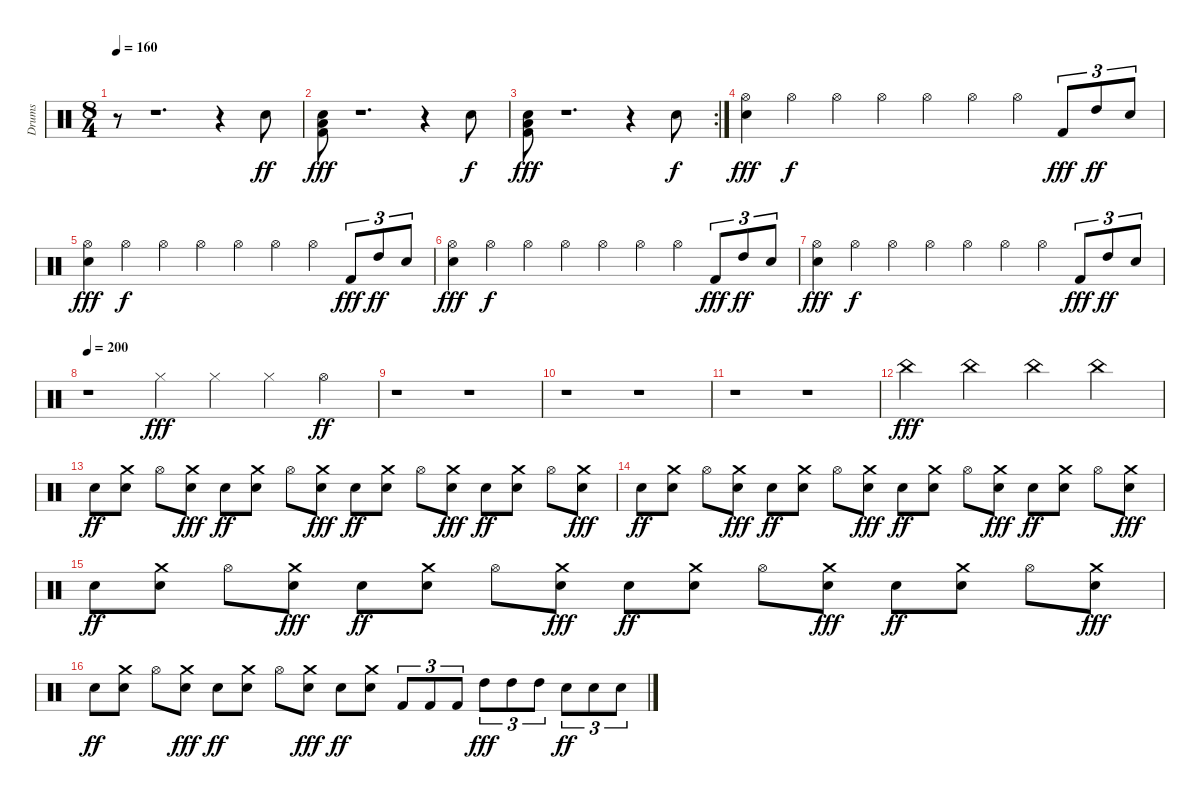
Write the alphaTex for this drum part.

\track ("Drums" "Drums") {instrument percussion}
\staff {score}
\articulation defaults
\ts (8 4)
\tempo 160
\clef neutral
\ks c
r.8{dy fff} r.1{d} r.4 "Electric Snare (hit)".8{dy ff} |
("Electric Snare (hit)" "Kick (hit) 2" "Low Tom (hit)").8{dy fff} r.1{d} r.4 "Electric Snare (hit)".8{dy f} |
\rc 2
("Electric Snare (hit)" "Kick (hit) 2" "Low Tom (hit)").8{dy fff} r.1{d} r.4 "Electric Snare (hit)".8{dy f} |
("Electric Snare (hit)" "Hi-Hat (open)").4{dy fff} "Hi-Hat (open)".4{dy f} "Hi-Hat (open)".4 "Hi-Hat (open)".4 "Hi-Hat (open)".4 "Hi-Hat (open)".4 "Hi-Hat (open)".4 "Kick (hit) 2".8{tu (3 2) dy fff} "High Tom (hit)".8{tu (3 2) dy ff} "Electric Snare (hit)".8{tu (3 2)} |
("Electric Snare (hit)" "Hi-Hat (open)").4{dy fff} "Hi-Hat (open)".4{dy f} "Hi-Hat (open)".4 "Hi-Hat (open)".4 "Hi-Hat (open)".4 "Hi-Hat (open)".4 "Hi-Hat (open)".4 "Kick (hit) 2".8{tu (3 2) dy fff} "High Tom (hit)".8{tu (3 2) dy ff} "Electric Snare (hit)".8{tu (3 2)} |
("Electric Snare (hit)" "Hi-Hat (open)").4{dy fff} "Hi-Hat (open)".4{dy f} "Hi-Hat (open)".4 "Hi-Hat (open)".4 "Hi-Hat (open)".4 "Hi-Hat (open)".4 "Hi-Hat (open)".4 "Kick (hit) 2".8{tu (3 2) dy fff} "High Tom (hit)".8{tu (3 2) dy ff} "Electric Snare (hit)".8{tu (3 2)} |
("Electric Snare (hit)" "Hi-Hat (open)").4{dy fff} "Hi-Hat (open)".4{dy f} "Hi-Hat (open)".4 "Hi-Hat (open)".4 "Hi-Hat (open)".4 "Hi-Hat (open)".4 "Hi-Hat (open)".4 "Kick (hit) 2".8{tu (3 2) dy fff} "High Tom (hit)".8{tu (3 2) dy ff} "Electric Snare (hit)".8{tu (3 2)} |
\tempo 200
r.1 "Hi-Hat (closed)".4{dy fff} "Hi-Hat (closed)".4 "Hi-Hat (closed)".4 "Hi-Hat (open)".4{dy ff} |
r.1 r.1 |
r.1 r.1 |
r.1 r.1 |
"China (hit)".2{dy fff} "China (hit)".2 "China (hit)".2 "China (hit)".2 |
"Electric Snare (hit)".8{dy ff} ("Crash medium (hit)" "Electric Snare (hit)").8 "Hi-Hat (open)".8 ("Electric Snare (hit)" "Crash medium (hit)").8{dy fff} "Electric Snare (hit)".8{dy ff} ("Crash medium (hit)" "Electric Snare (hit)").8 "Hi-Hat (open)".8 ("Electric Snare (hit)" "Crash medium (hit)").8{dy fff} "Electric Snare (hit)".8{dy ff} ("Crash medium (hit)" "Electric Snare (hit)").8 "Hi-Hat (open)".8 ("Electric Snare (hit)" "Crash medium (hit)").8{dy fff} "Electric Snare (hit)".8{dy ff} ("Crash medium (hit)" "Electric Snare (hit)").8 "Hi-Hat (open)".8 ("Electric Snare (hit)" "Crash medium (hit)").8{dy fff} |
"Electric Snare (hit)".8{dy ff} ("Crash medium (hit)" "Electric Snare (hit)").8 "Hi-Hat (open)".8 ("Electric Snare (hit)" "Crash medium (hit)").8{dy fff} "Electric Snare (hit)".8{dy ff} ("Crash medium (hit)" "Electric Snare (hit)").8 "Hi-Hat (open)".8 ("Electric Snare (hit)" "Crash medium (hit)").8{dy fff} "Electric Snare (hit)".8{dy ff} ("Crash medium (hit)" "Electric Snare (hit)").8 "Hi-Hat (open)".8 ("Electric Snare (hit)" "Crash medium (hit)").8{dy fff} "Electric Snare (hit)".8{dy ff} ("Crash medium (hit)" "Electric Snare (hit)").8 "Hi-Hat (open)".8 ("Electric Snare (hit)" "Crash medium (hit)").8{dy fff} |
"Electric Snare (hit)".8{dy ff} ("Crash medium (hit)" "Electric Snare (hit)").8 "Hi-Hat (open)".8 ("Electric Snare (hit)" "Crash medium (hit)").8{dy fff} "Electric Snare (hit)".8{dy ff} ("Crash medium (hit)" "Electric Snare (hit)").8 "Hi-Hat (open)".8 ("Electric Snare (hit)" "Crash medium (hit)").8{dy fff} "Electric Snare (hit)".8{dy ff} ("Crash medium (hit)" "Electric Snare (hit)").8 "Hi-Hat (open)".8 ("Electric Snare (hit)" "Crash medium (hit)").8{dy fff} "Electric Snare (hit)".8{dy ff} ("Crash medium (hit)" "Electric Snare (hit)").8 "Hi-Hat (open)".8 ("Electric Snare (hit)" "Crash medium (hit)").8{dy fff} |
"Electric Snare (hit)".8{dy ff} ("Crash medium (hit)" "Electric Snare (hit)").8 "Hi-Hat (open)".8 ("Electric Snare (hit)" "Crash medium (hit)").8{dy fff} "Electric Snare (hit)".8{dy ff} ("Crash medium (hit)" "Electric Snare (hit)").8 "Hi-Hat (open)".8 ("Electric Snare (hit)" "Crash medium (hit)").8{dy fff} "Electric Snare (hit)".8{dy ff} ("Crash medium (hit)" "Electric Snare (hit)").8 "Kick (hit) 2".8{tu (3 2)} "Kick (hit) 2".8{tu (3 2)} "Kick (hit) 2".8{tu (3 2)} "High Tom (hit)".8{tu (3 2) dy fff} "High Tom (hit)".8{tu (3 2)} "High Tom (hit)".8{tu (3 2)} "Electric Snare (hit)".8{tu (3 2) dy ff} "Electric Snare (hit)".8{tu (3 2)} "Electric Snare (hit)".8{tu (3 2)}
